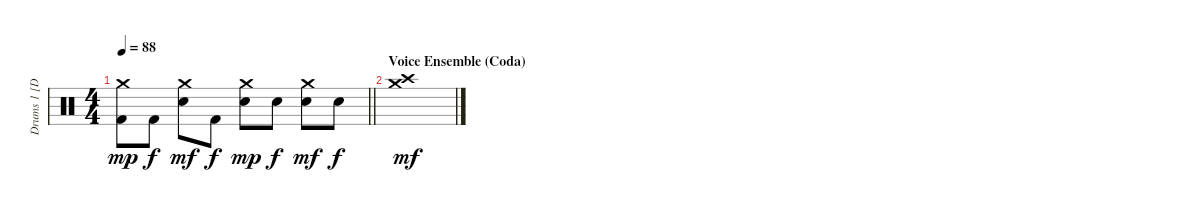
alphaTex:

\track ("Drums 1 [Doom]" "Drums 1 [D") {instrument percussion}
\staff {score}
\articulation defaults
\ts (4 4)
\tempo 88
\clef neutral
\barLineRight lightlight
\ks c
("Crash medium (hit)" "Kick (hit) 2").8{dy mp} "Kick (hit) 2".8{dy f} ("Crash medium (hit)" "Electric Snare (hit)").8{dy mf} "Kick (hit) 2".8{dy f} ("Crash medium (hit)" "Electric Snare (hit)").8{dy mp} "Electric Snare (hit)".8{dy f} ("Crash medium (hit)" "Electric Snare (hit)").8{dy mf} "Electric Snare (hit)".8{dy f} |
\section ("" "Voice Ensemble (Coda)")
("Crash high (hit)" "Crash medium (hit)").1{dy mf}
